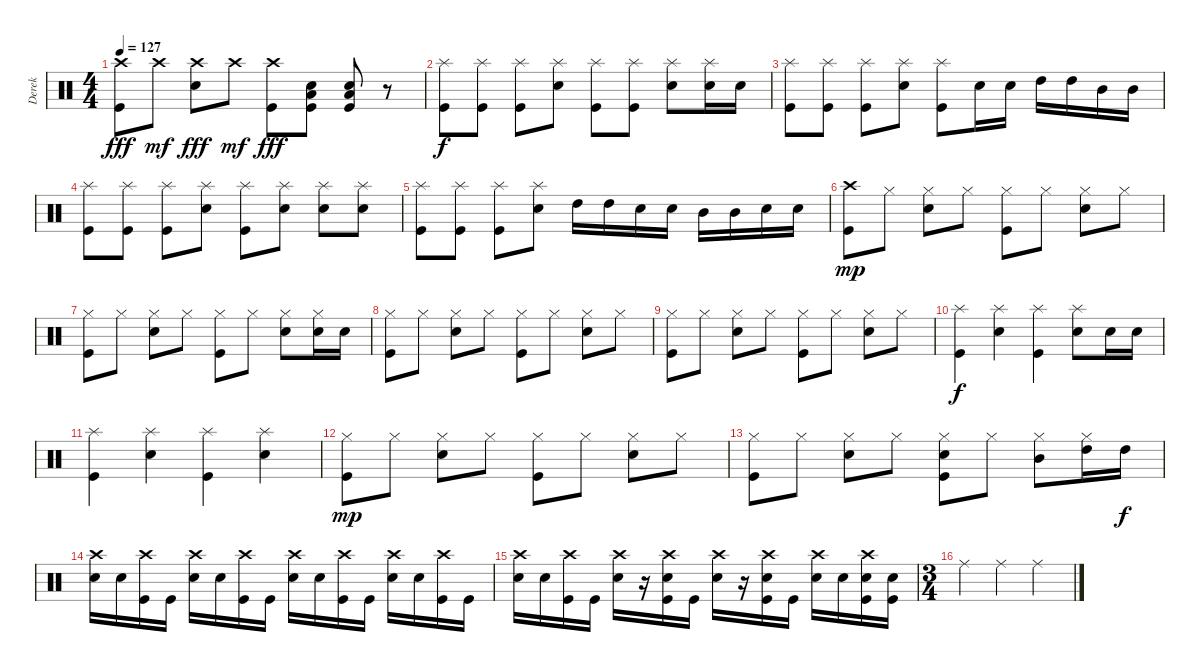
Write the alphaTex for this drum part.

\track ("Derek" "Derek") {instrument percussion}
\staff {score}
\articulation defaults
\ts (4 4)
\tempo 127
\clef neutral
\ks c
("Crash high (hit)" "Kick (hit)").8{dy fff} "Crash high (hit)".8{dy mf} ("Crash high (hit)" "Snare (hit) 2").8{dy fff} "Crash high (hit)".8{dy mf} ("Crash high (hit)" "Kick (hit)").8{dy fff} ("Snare (hit) 2" "Low Floor Tom (hit)" "Kick (hit)").8 ("Snare (hit) 2" "Low Floor Tom (hit)" "Kick (hit)").8 r.8 |
("Splash (hit)" "Kick (hit)").8{dy f} ("Splash (hit)" "Kick (hit)").8 ("Splash (hit)" "Kick (hit)").8 ("Splash (hit)" "Snare (hit) 2").8 ("Splash (hit)" "Kick (hit)").8 ("Splash (hit)" "Kick (hit)").8 ("Splash (hit)" "Snare (hit) 2").8 ("Splash (hit)" "Snare (hit) 2").16 "Snare (hit) 2".16 |
("Splash (hit)" "Kick (hit)").8 ("Splash (hit)" "Kick (hit)").8 ("Splash (hit)" "Kick (hit)").8 ("Splash (hit)" "Snare (hit) 2").8 ("Splash (hit)" "Kick (hit)").8 "Snare (hit) 2".16 "Snare (hit) 2".16 "High Tom (hit)".16 "High Tom (hit)".16 "Mid Tom (hit)".16 "Mid Tom (hit)".16 |
("Splash (hit)" "Kick (hit)").8 ("Splash (hit)" "Kick (hit)").8 ("Splash (hit)" "Kick (hit)").8 ("Splash (hit)" "Snare (hit) 2").8 ("Splash (hit)" "Kick (hit)").8 ("Splash (hit)" "Snare (hit) 2").8 ("Splash (hit)" "Snare (hit) 2").8 ("Splash (hit)" "Snare (hit) 2").8 |
("Splash (hit)" "Kick (hit)").8 ("Splash (hit)" "Kick (hit)").8 ("Splash (hit)" "Kick (hit)").8 ("Splash (hit)" "Snare (hit) 2").8 "High Tom (hit)".16 "High Tom (hit)".16 "Snare (hit) 2".16 "Snare (hit) 2".16 "Mid Tom (hit)".16 "Mid Tom (hit)".16 "Snare (hit) 2".16 "Snare (hit) 2".16 |
("Crash high (hit)" "Kick (hit)").8{dy mp} "Hi-Hat (closed)".8 ("Hi-Hat (closed)" "Snare (hit) 2").8 "Hi-Hat (closed)".8 ("Hi-Hat (closed)" "Kick (hit)").8 "Hi-Hat (closed)".8 ("Hi-Hat (closed)" "Snare (hit) 2").8 "Hi-Hat (closed)".8 |
("Hi-Hat (closed)" "Kick (hit)").8 "Hi-Hat (closed)".8 ("Hi-Hat (closed)" "Snare (hit) 2").8 "Hi-Hat (closed)".8 ("Hi-Hat (closed)" "Kick (hit)").8 "Hi-Hat (closed)".8 ("Hi-Hat (closed)" "Snare (hit) 2").8 ("Hi-Hat (closed)" "Snare (hit) 2").16 "Snare (hit) 2".16 |
("Hi-Hat (closed)" "Kick (hit)").8 "Hi-Hat (closed)".8 ("Hi-Hat (closed)" "Snare (hit) 2").8 "Hi-Hat (closed)".8 ("Hi-Hat (closed)" "Kick (hit)").8 "Hi-Hat (closed)".8 ("Hi-Hat (closed)" "Snare (hit) 2").8 "Hi-Hat (closed)".8 |
("Hi-Hat (closed)" "Kick (hit)").8 "Hi-Hat (closed)".8 ("Hi-Hat (closed)" "Snare (hit) 2").8 "Hi-Hat (closed)".8 ("Hi-Hat (closed)" "Kick (hit)").8 "Hi-Hat (closed)".8 ("Hi-Hat (closed)" "Snare (hit) 2").8 "Hi-Hat (closed)".8 |
("Splash (hit)" "Kick (hit)").4{dy f} ("Splash (hit)" "Snare (hit) 2").4 ("Splash (hit)" "Kick (hit)").4 ("Splash (hit)" "Snare (hit) 2").8 "Snare (hit) 2".16 "Snare (hit) 2".16 |
("Splash (hit)" "Kick (hit)").4 ("Splash (hit)" "Snare (hit) 2").4 ("Splash (hit)" "Kick (hit)").4 ("Splash (hit)" "Snare (hit) 2").4 |
("Hi-Hat (closed)" "Kick (hit)").8{dy mp} "Hi-Hat (closed)".8 ("Hi-Hat (closed)" "Snare (hit) 2").8 "Hi-Hat (closed)".8 ("Hi-Hat (closed)" "Kick (hit)").8 "Hi-Hat (closed)".8 ("Hi-Hat (closed)" "Snare (hit) 2").8 "Hi-Hat (closed)".8 |
("Hi-Hat (closed)" "Kick (hit)").8 "Hi-Hat (closed)".8 ("Hi-Hat (closed)" "Snare (hit) 2").8 "Hi-Hat (closed)".8 ("Hi-Hat (closed)" "Snare (hit) 2" "Kick (hit)").8 "Hi-Hat (closed)".8 ("Hi-Hat (closed)" "Mid Tom (hit)").8 ("Hi-Hat (closed)" "High Tom (hit)").16 "High Tom (hit)".16{dy f} |
("Crash high (hit)" "Snare (hit) 2").16 "Snare (hit) 2".16 ("Crash high (hit)" "Kick (hit)").16 "Kick (hit)".16 ("Crash high (hit)" "Snare (hit) 2").16 "Snare (hit) 2".16 ("Crash high (hit)" "Kick (hit)").16 "Kick (hit)".16 ("Crash high (hit)" "Snare (hit) 2").16 "Snare (hit) 2".16 ("Crash high (hit)" "Kick (hit)").16 "Kick (hit)".16 ("Crash high (hit)" "Snare (hit) 2").16 "Snare (hit) 2".16 ("Crash high (hit)" "Kick (hit)").16 "Kick (hit)".16 |
("Crash high (hit)" "Snare (hit) 2").16 "Snare (hit) 2".16 ("Crash high (hit)" "Kick (hit)").16 "Kick (hit)".16 ("Crash high (hit)" "Snare (hit) 2").16 r.16 ("Crash high (hit)" "Snare (hit) 2" "Kick (hit)").16 "Kick (hit)".16 ("Crash high (hit)" "Snare (hit) 2").16 r.16 ("Crash high (hit)" "Snare (hit) 2" "Kick (hit)").16 "Kick (hit)".16 ("Crash high (hit)" "Snare (hit) 2").16 "Snare (hit) 2".16 ("Crash high (hit)" "Snare (hit) 2" "Kick (hit)").16 ("Snare (hit) 2" "Kick (hit)").16 |
\ts (3 4)
"Ride (middle)".4 "Ride (middle)".4 "Ride (middle)".4
